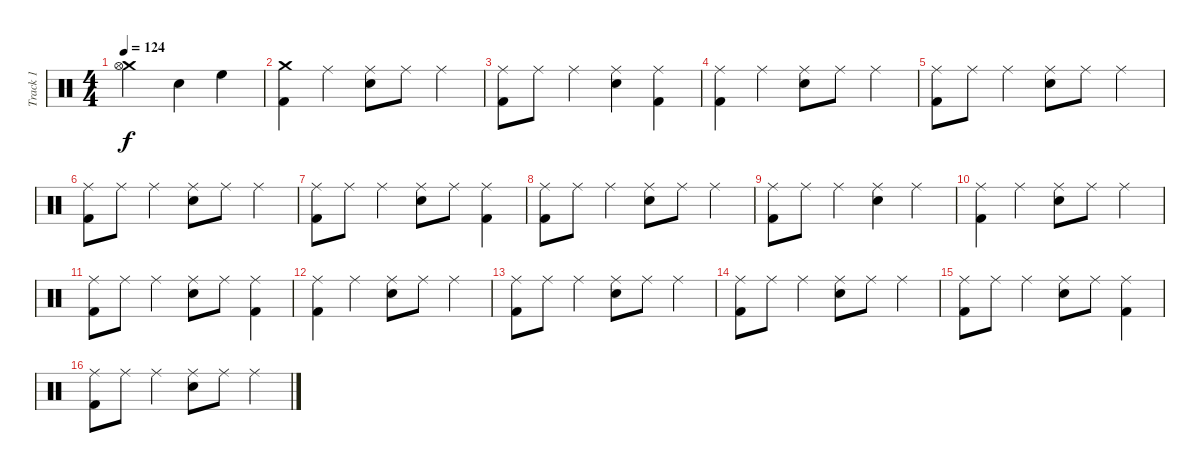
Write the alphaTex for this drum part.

\track ("Track 1" "Track 1") {instrument percussion}
\staff {score}
\articulation defaults
\ts (4 4)
\tempo 124
\clef neutral
\ks c
("Crash medium (hit)" "Hi-Hat (open)").2{dy f} "Electric Snare (hit)".4 "High Floor Tom (hit)".4 |
("Crash medium (hit)" "Kick (hit) 2").4 "Ride (middle)".4 ("Ride (middle)" "Electric Snare (hit)").8 "Ride (middle)".8 "Ride (middle)".4 |
("Ride (middle)" "Kick (hit) 2").8 "Ride (middle)".8 "Ride (middle)".4 ("Ride (middle)" "Electric Snare (hit)").4 ("Ride (middle)" "Kick (hit) 2").4 |
("Ride (middle)" "Kick (hit) 2").4 "Ride (middle)".4 ("Ride (middle)" "Electric Snare (hit)").8 "Ride (middle)".8 "Ride (middle)".4 |
("Ride (middle)" "Kick (hit) 2").8 "Ride (middle)".8 "Ride (middle)".4 ("Ride (middle)" "Electric Snare (hit)").8 "Ride (middle)".8 "Ride (middle)".4 |
("Ride (middle)" "Kick (hit) 2").8 "Ride (middle)".8 "Ride (middle)".4 ("Ride (middle)" "Electric Snare (hit)").8 "Ride (middle)".8 "Ride (middle)".4 |
("Ride (middle)" "Kick (hit) 2").8 "Ride (middle)".8 "Ride (middle)".4 ("Ride (middle)" "Electric Snare (hit)").8 "Ride (middle)".8 ("Ride (middle)" "Kick (hit) 2").4 |
("Ride (middle)" "Kick (hit) 2").8 "Ride (middle)".8 "Ride (middle)".4 ("Ride (middle)" "Electric Snare (hit)").8 "Ride (middle)".8 "Ride (middle)".4 |
("Ride (middle)" "Kick (hit) 2").8 "Ride (middle)".8 "Ride (middle)".4 ("Ride (middle)" "Electric Snare (hit)").4 "Ride (middle)".4 |
("Ride (middle)" "Kick (hit) 2").4 "Ride (middle)".4 ("Ride (middle)" "Electric Snare (hit)").8 "Ride (middle)".8 "Ride (middle)".4 |
("Ride (middle)" "Kick (hit) 2").8 "Ride (middle)".8 "Ride (middle)".4 ("Ride (middle)" "Electric Snare (hit)").8 "Ride (middle)".8 ("Ride (middle)" "Kick (hit) 2").4 |
("Ride (middle)" "Kick (hit) 2").4 "Ride (middle)".4 ("Ride (middle)" "Electric Snare (hit)").8 "Ride (middle)".8 "Ride (middle)".4 |
("Ride (middle)" "Kick (hit) 2").8 "Ride (middle)".8 "Ride (middle)".4 ("Ride (middle)" "Electric Snare (hit)").8 "Ride (middle)".8 "Ride (middle)".4 |
("Ride (middle)" "Kick (hit) 2").8 "Ride (middle)".8 "Ride (middle)".4 ("Ride (middle)" "Electric Snare (hit)").8 "Ride (middle)".8 "Ride (middle)".4 |
("Ride (middle)" "Kick (hit) 2").8 "Ride (middle)".8 "Ride (middle)".4 ("Ride (middle)" "Electric Snare (hit)").8 "Ride (middle)".8 ("Ride (middle)" "Kick (hit) 2").4 |
("Ride (middle)" "Kick (hit) 2").8 "Ride (middle)".8 "Ride (middle)".4 ("Ride (middle)" "Electric Snare (hit)").8 "Ride (middle)".8 "Ride (middle)".4
